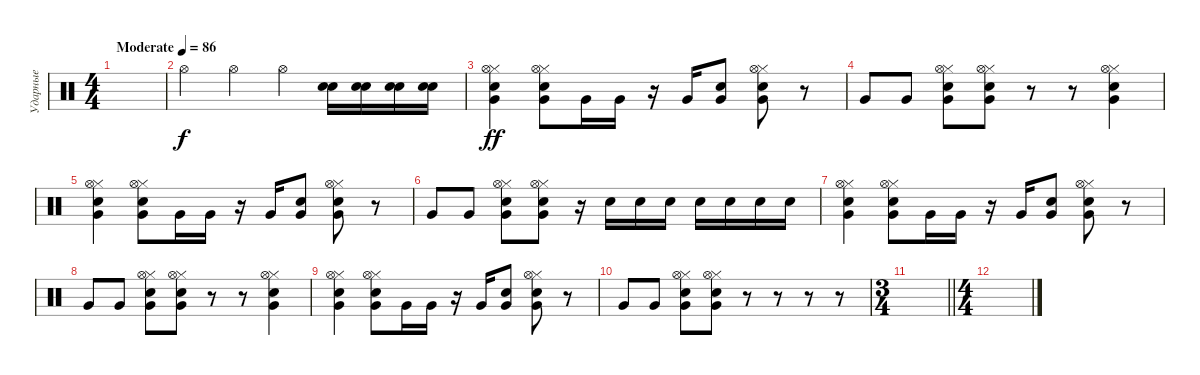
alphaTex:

\track ("Ударные" "Ударные") {instrument percussion}
\staff {score}
\articulation defaults
\ts (4 4)
\tempo (86 "Moderate")
\clef neutral
\ks c
|
"Hi-Hat (open)".4 "Hi-Hat (open)".4 "Hi-Hat (open)".4 ("Electric Snare (hit)" "Electric Snare (hit)").16 ("Electric Snare (hit)" "Electric Snare (hit)").16 ("Electric Snare (hit)" "Electric Snare (hit)").16 ("Electric Snare (hit)" "Electric Snare (hit)").16 |
("Very Low Tom (hit)" "Electric Snare (hit)" "Hi-Hat (closed)" "Hi-Hat (open)").4{dy ff} ("Very Low Tom (hit)" "Electric Snare (hit)" "Hi-Hat (closed)" "Hi-Hat (open)").8 "Very Low Tom (hit)".16 "Very Low Tom (hit)".16 r.16 "Very Low Tom (hit)".16 ("Electric Snare (hit)" "Very Low Tom (hit)").8 ("Very Low Tom (hit)" "Electric Snare (hit)" "Hi-Hat (closed)" "Hi-Hat (open)").8 r.8 |
"Very Low Tom (hit)".8 "Very Low Tom (hit)".8 ("Very Low Tom (hit)" "Electric Snare (hit)" "Hi-Hat (closed)" "Hi-Hat (open)").8 ("Very Low Tom (hit)" "Electric Snare (hit)" "Hi-Hat (closed)" "Hi-Hat (open)").8 r.8 r.8 ("Hi-Hat (closed)" "Electric Snare (hit)" "Very Low Tom (hit)" "Hi-Hat (open)").4 |
("Very Low Tom (hit)" "Electric Snare (hit)" "Hi-Hat (closed)" "Hi-Hat (open)").4 ("Very Low Tom (hit)" "Electric Snare (hit)" "Hi-Hat (closed)" "Hi-Hat (open)").8 "Very Low Tom (hit)".16 "Very Low Tom (hit)".16 r.16 "Very Low Tom (hit)".16 ("Electric Snare (hit)" "Very Low Tom (hit)").8 ("Very Low Tom (hit)" "Electric Snare (hit)" "Hi-Hat (closed)" "Hi-Hat (open)").8 r.8 |
"Very Low Tom (hit)".8 "Very Low Tom (hit)".8 ("Very Low Tom (hit)" "Electric Snare (hit)" "Hi-Hat (closed)" "Hi-Hat (open)").8 ("Very Low Tom (hit)" "Electric Snare (hit)" "Hi-Hat (closed)" "Hi-Hat (open)").8 r.16 "Electric Snare (hit)".16 "Electric Snare (hit)".16 "Electric Snare (hit)".16 "Electric Snare (hit)".16 "Electric Snare (hit)".16 "Electric Snare (hit)".16 "Electric Snare (hit)".16 |
("Very Low Tom (hit)" "Electric Snare (hit)" "Hi-Hat (closed)" "Hi-Hat (open)").4 ("Very Low Tom (hit)" "Electric Snare (hit)" "Hi-Hat (closed)" "Hi-Hat (open)").8 "Very Low Tom (hit)".16 "Very Low Tom (hit)".16 r.16 "Very Low Tom (hit)".16 ("Electric Snare (hit)" "Very Low Tom (hit)").8 ("Very Low Tom (hit)" "Electric Snare (hit)" "Hi-Hat (closed)" "Hi-Hat (open)").8 r.8 |
"Very Low Tom (hit)".8 "Very Low Tom (hit)".8 ("Very Low Tom (hit)" "Electric Snare (hit)" "Hi-Hat (closed)" "Hi-Hat (open)").8 ("Very Low Tom (hit)" "Electric Snare (hit)" "Hi-Hat (closed)" "Hi-Hat (open)").8 r.8 r.8 ("Hi-Hat (closed)" "Electric Snare (hit)" "Very Low Tom (hit)" "Hi-Hat (open)").4 |
("Very Low Tom (hit)" "Electric Snare (hit)" "Hi-Hat (closed)" "Hi-Hat (open)").4 ("Very Low Tom (hit)" "Electric Snare (hit)" "Hi-Hat (closed)" "Hi-Hat (open)").8 "Very Low Tom (hit)".16 "Very Low Tom (hit)".16 r.16 "Very Low Tom (hit)".16 ("Electric Snare (hit)" "Very Low Tom (hit)").8 ("Very Low Tom (hit)" "Electric Snare (hit)" "Hi-Hat (closed)" "Hi-Hat (open)").8 r.8 |
"Very Low Tom (hit)".8 "Very Low Tom (hit)".8 ("Very Low Tom (hit)" "Electric Snare (hit)" "Hi-Hat (closed)" "Hi-Hat (open)").8 ("Very Low Tom (hit)" "Electric Snare (hit)" "Hi-Hat (closed)" "Hi-Hat (open)").8 r.8 r.8 r.8 r.8 |
\ts (3 4)
\barLineRight lightlight
|
\ts (4 4)
